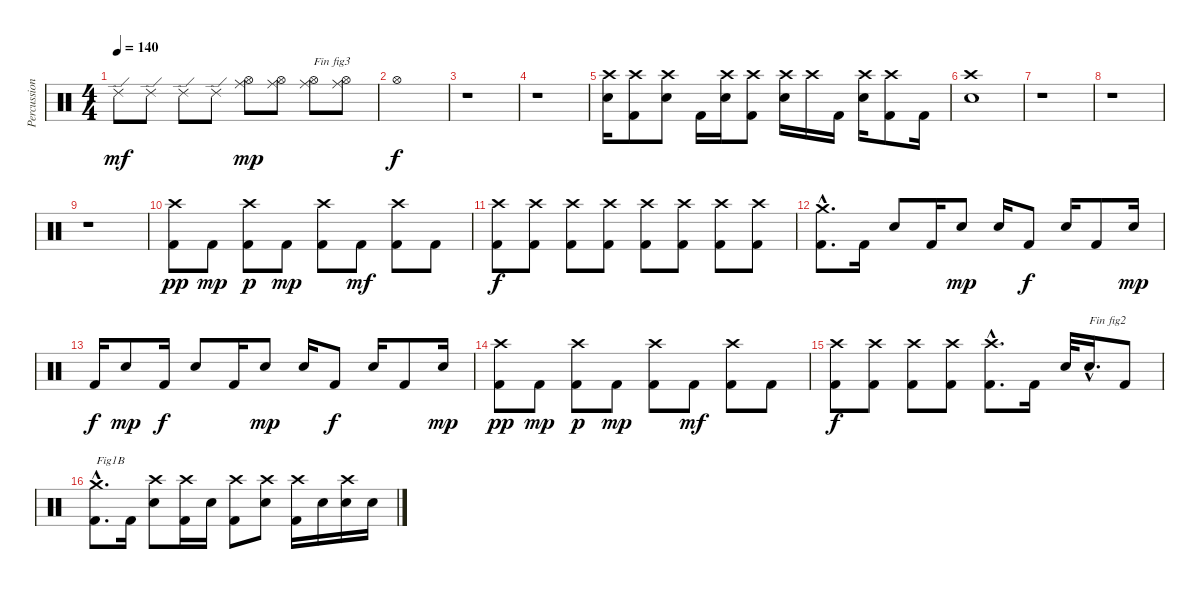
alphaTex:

\track ("Percussions" "Percussion") {instrument percussion}
\staff {score}
\articulation defaults
\ts (4 4)
\tempo 140
\clef neutral
\ks c "Ride (edge) 2".8{dy mf} "Ride (edge) 2".8 "Ride (edge) 2".8 "Ride (edge) 2".8
("Hi-Hat (open)" "Ride (middle)").8{dy mp} ("Hi-Hat (open)" "Ride (middle)").8 ("Hi-Hat (open)" "Ride (middle)").8{txt "Fin fig3"} ("Hi-Hat (open)" "Ride (middle)").8 |
"Hi-Hat (open)".1{dy f} |
r.1 |
r.1 |
("Electric Snare (hit)" "Crash high (hit)").16 ("Kick (hit) 2" "Crash high (hit)").8 ("Electric Snare (hit)" "Crash high (hit)").8 "Kick (hit) 2".16 ("Electric Snare (hit)" "Crash high (hit)").16 ("Kick (hit) 2" "Crash high (hit)").8 ("Electric Snare (hit)" "Crash high (hit)").16 "Crash high (hit)".16 "Kick (hit) 2".16 ("Electric Snare (hit)" "Crash high (hit)").16 ("Kick (hit) 2" "Crash high (hit)").8 "Kick (hit) 2".16 |
("Electric Snare (hit)" "Crash high (hit)").1 |
r.1 |
r.1 |
r.1 |
("Kick (hit) 2" "Crash high (hit)").8{dy pp} "Kick (hit) 2".8{dy mp} ("Kick (hit) 2" "Crash high (hit)").8{dy p} "Kick (hit) 2".8{dy mp} ("Kick (hit) 2" "Crash high (hit)").8 "Kick (hit) 2".8{dy mf} ("Kick (hit) 2" "Crash high (hit)").8 "Kick (hit) 2".8 |
("Kick (hit) 2" "Crash high (hit)").8{dy f} ("Kick (hit) 2" "Crash high (hit)").8 ("Kick (hit) 2" "Crash high (hit)").8 ("Kick (hit) 2" "Crash high (hit)").8 ("Kick (hit) 2" "Crash high (hit)").8 ("Kick (hit) 2" "Crash high (hit)").8 ("Kick (hit) 2" "Crash high (hit)").8 ("Kick (hit) 2" "Crash high (hit)").8 |
("Kick (hit) 2"{hac} "Crash medium (hit)"{hac}).8{d} "Kick (hit) 2".16 "Electric Snare (hit)".8 "Kick (hit) 2".16 "Snare (hit) 2".8{dy mp} "Snare (hit) 2".16 "Kick (hit) 2".8{dy f} "Electric Snare (hit)".16 "Kick (hit) 2".8 "Snare (hit) 2".16{dy mp} |
"Kick (hit) 2".16{dy f} "Snare (hit) 2".8{dy mp} "Kick (hit) 2".16{dy f} "Electric Snare (hit)".8 "Kick (hit) 2".16 "Snare (hit) 2".8{dy mp} "Snare (hit) 2".16 "Kick (hit) 2".8{dy f} "Electric Snare (hit)".16 "Kick (hit) 2".8 "Snare (hit) 2".16{dy mp} |
("Kick (hit) 2" "Crash high (hit)").8{dy pp} "Kick (hit) 2".8{dy mp} ("Kick (hit) 2" "Crash high (hit)").8{dy p} "Kick (hit) 2".8{dy mp} ("Kick (hit) 2" "Crash high (hit)").8 "Kick (hit) 2".8{dy mf} ("Kick (hit) 2" "Crash high (hit)").8 "Kick (hit) 2".8 |
("Kick (hit) 2" "Crash high (hit)").8{dy f} ("Kick (hit) 2" "Crash high (hit)").8 ("Kick (hit) 2" "Crash high (hit)").8 ("Kick (hit) 2" "Crash high (hit)").8 ("Kick (hit) 2"{hac} "Crash high (hit)"{hac}).8{d} "Kick (hit) 2".16 "Electric Snare (hit)".32 "Electric Snare (hit)"{hac}.16{d txt "Fin fig2"} "Kick (hit) 2".8 |
("Kick (hit) 2"{hac} "Crash medium (hit)"{hac}).8{d txt "Fig1B"} "Kick (hit) 2".16 ("Electric Snare (hit)" "Crash high (hit)").8 ("Kick (hit) 2" "Crash high (hit)").16 "Electric Snare (hit)".16 ("Kick (hit) 2" "Crash high (hit)").8 ("Electric Snare (hit)" "Crash high (hit)").8 ("Kick (hit) 2" "Crash high (hit)").16 "Electric Snare (hit)".16 ("Electric Snare (hit)" "Crash high (hit)").16 "Electric Snare (hit)".16
